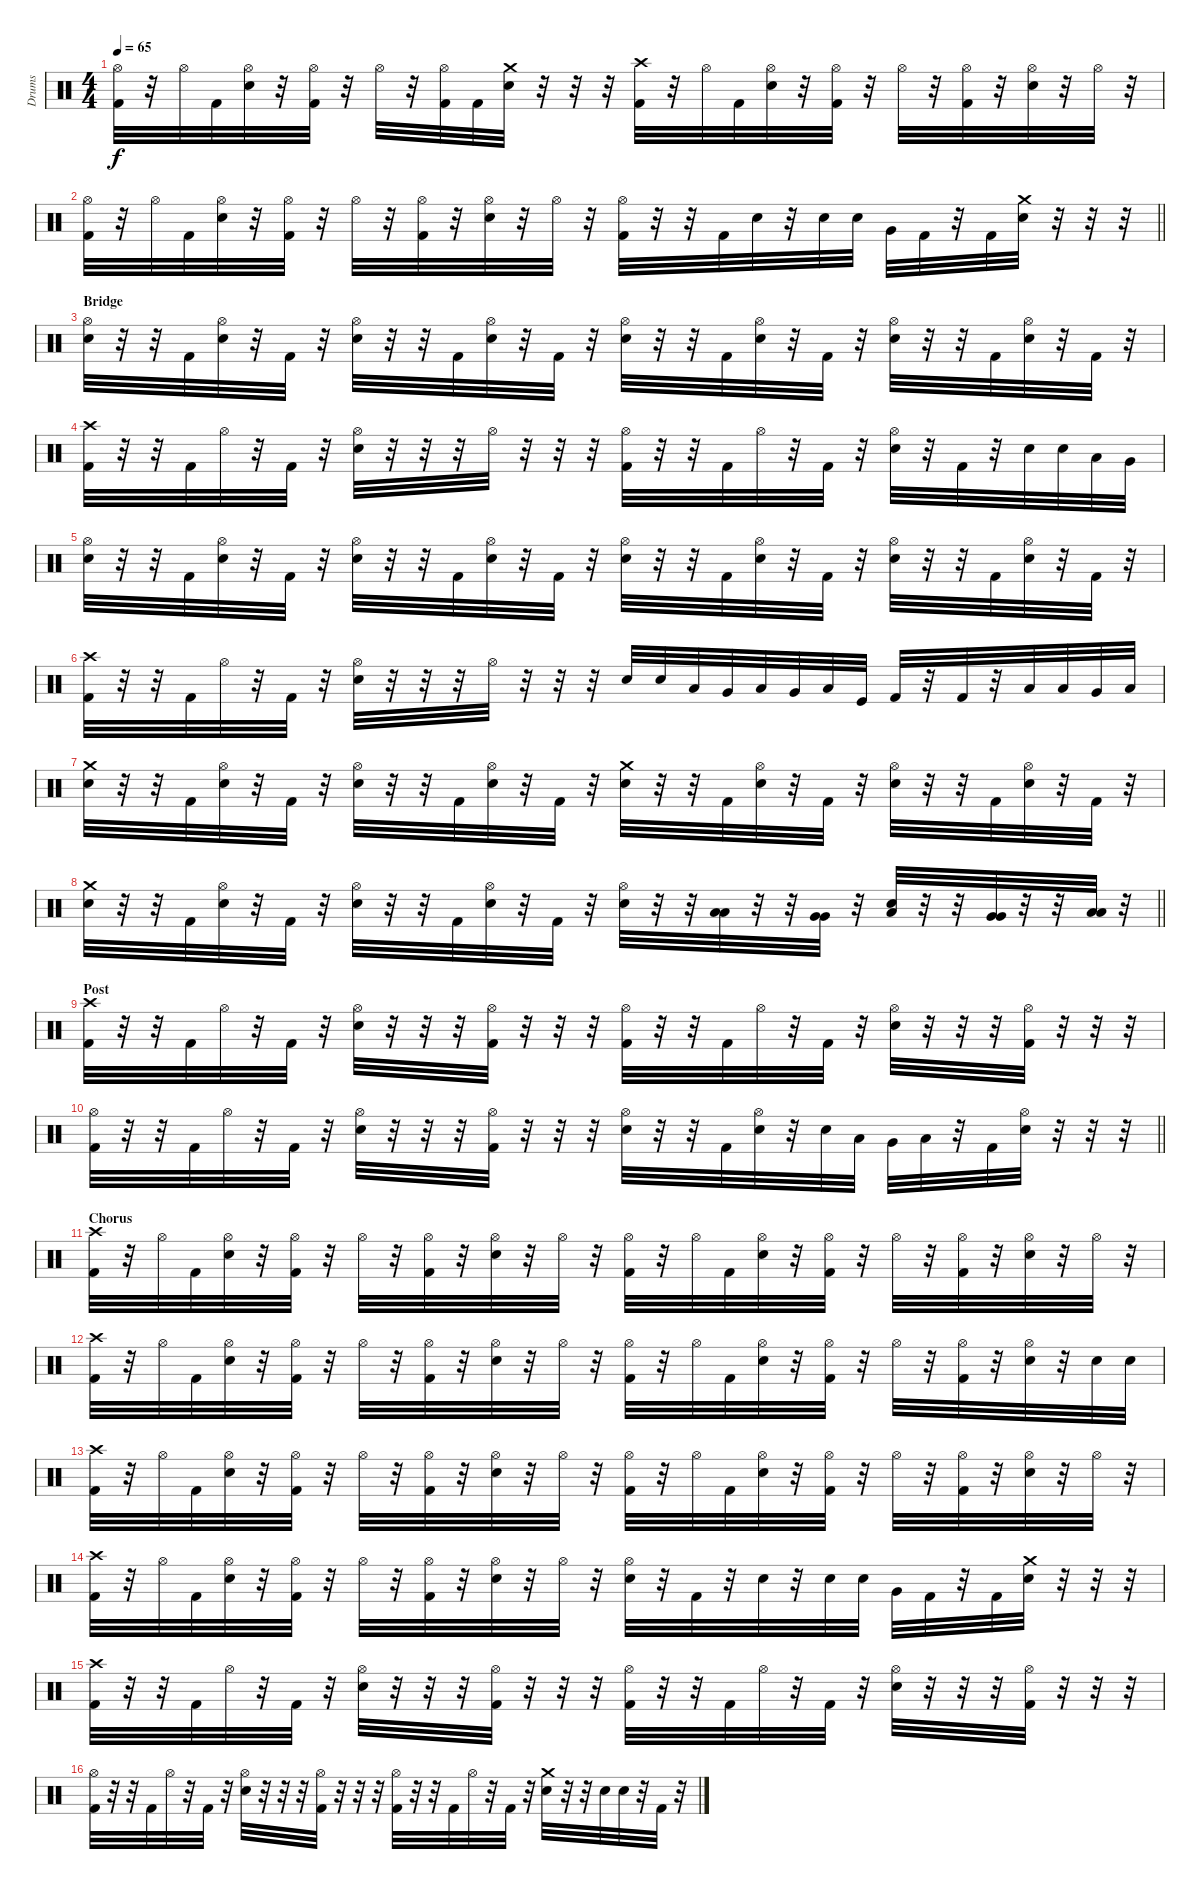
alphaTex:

\track ("Drums" "Drums") {instrument percussion}
\staff {score}
\articulation defaults
\ts (4 4)
\tempo 65
\clef neutral
\ks c
("Hi-Hat (open)" "Kick (hit) 2").32{dy f} r.32 "Hi-Hat (open)".32 "Kick (hit) 2".32 ("Hi-Hat (open)" "Snare (hit) 2").32 r.32 ("Hi-Hat (open)" "Kick (hit) 2").32 r.32 "Hi-Hat (open)".32 r.32 ("Hi-Hat (open)" "Kick (hit) 2").32 "Kick (hit) 2".32 ("Crash medium (hit)" "Snare (hit) 2").32 r.32 r.32 r.32 ("Crash high (hit)" "Kick (hit) 2").32 r.32 "Hi-Hat (open)".32 "Kick (hit) 2".32 ("Hi-Hat (open)" "Snare (hit) 2").32 r.32 ("Hi-Hat (open)" "Kick (hit) 2").32 r.32 "Hi-Hat (open)".32 r.32 ("Hi-Hat (open)" "Kick (hit) 2").32 r.32 ("Hi-Hat (open)" "Snare (hit) 2").32 r.32 "Hi-Hat (open)".32 r.32 |
\barLineRight lightlight
("Hi-Hat (open)" "Kick (hit) 2").32 r.32 "Hi-Hat (open)".32 "Kick (hit) 2".32 ("Hi-Hat (open)" "Snare (hit) 2").32 r.32 ("Hi-Hat (open)" "Kick (hit) 2").32 r.32 "Hi-Hat (open)".32 r.32 ("Hi-Hat (open)" "Kick (hit) 2").32 r.32 ("Hi-Hat (open)" "Snare (hit) 2").32 r.32 "Hi-Hat (open)".32 r.32 ("Hi-Hat (open)" "Kick (hit) 2").32 r.32 r.32 "Kick (hit) 2".32 "Snare (hit) 2".32 r.32 "Snare (hit) 2".32 "Snare (hit) 2".32 "Very Low Tom (hit)".32 "Kick (hit) 2".32 r.32 "Kick (hit) 2".32 ("Snare (hit) 2" "Crash medium (hit)").32 r.32 r.32 r.32 |
\section ("" "Bridge")
("Hi-Hat (open)" "Snare (hit) 2").32 r.32 r.32 "Kick (hit) 2".32 ("Hi-Hat (open)" "Snare (hit) 2").32 r.32 "Kick (hit) 2".32 r.32 ("Hi-Hat (open)" "Snare (hit) 2").32 r.32 r.32 "Kick (hit) 2".32 ("Hi-Hat (open)" "Snare (hit) 2").32 r.32 "Kick (hit) 2".32 r.32 ("Hi-Hat (open)" "Snare (hit) 2").32 r.32 r.32 "Kick (hit) 2".32 ("Hi-Hat (open)" "Snare (hit) 2").32 r.32 "Kick (hit) 2".32 r.32 ("Hi-Hat (open)" "Snare (hit) 2").32 r.32 r.32 "Kick (hit) 2".32 ("Hi-Hat (open)" "Snare (hit) 2").32 r.32 "Kick (hit) 2".32 r.32 |
("Crash high (hit)" "Kick (hit) 2").32 r.32 r.32 "Kick (hit) 2".32 "Hi-Hat (open)".32 r.32 "Kick (hit) 2".32 r.32 ("Hi-Hat (open)" "Snare (hit) 2").32 r.32 r.32 r.32 "Hi-Hat (open)".32 r.32 r.32 r.32 ("Hi-Hat (open)" "Kick (hit) 2").32 r.32 r.32 "Kick (hit) 2".32 "Hi-Hat (open)".32 r.32 "Kick (hit) 2".32 r.32 ("Hi-Hat (open)" "Snare (hit) 2").32 r.32 "Kick (hit) 2".32 r.32 "Snare (hit) 2".32 "Snare (hit) 2".32 "Low Tom (hit)".32 "Very Low Tom (hit)".32 |
("Hi-Hat (open)" "Snare (hit) 2").32 r.32 r.32 "Kick (hit) 2".32 ("Hi-Hat (open)" "Snare (hit) 2").32 r.32 "Kick (hit) 2".32 r.32 ("Hi-Hat (open)" "Snare (hit) 2").32 r.32 r.32 "Kick (hit) 2".32 ("Hi-Hat (open)" "Snare (hit) 2").32 r.32 "Kick (hit) 2".32 r.32 ("Hi-Hat (open)" "Snare (hit) 2").32 r.32 r.32 "Kick (hit) 2".32 ("Hi-Hat (open)" "Snare (hit) 2").32 r.32 "Kick (hit) 2".32 r.32 ("Hi-Hat (open)" "Snare (hit) 2").32 r.32 r.32 "Kick (hit) 2".32 ("Hi-Hat (open)" "Snare (hit) 2").32 r.32 "Kick (hit) 2".32 r.32 |
("Crash high (hit)" "Kick (hit) 2").32 r.32 r.32 "Kick (hit) 2".32 "Hi-Hat (open)".32 r.32 "Kick (hit) 2".32 r.32 ("Hi-Hat (open)" "Snare (hit) 2").32 r.32 r.32 r.32 "Hi-Hat (open)".32 r.32 r.32 r.32 "Snare (hit) 2".32 "Snare (hit) 2".32 "Low Tom (hit)".32 "Very Low Tom (hit)".32 "Low Tom (hit)".32 "Very Low Tom (hit)".32 "Low Floor Tom (hit)".32 "Kick (hit)".32 "Kick (hit) 2".32 r.32 "Kick (hit) 2".32 r.32 "Low Tom (hit)".32 "Low Tom (hit)".32 "Very Low Tom (hit)".32 "Low Floor Tom (hit)".32 |
("Crash medium (hit)" "Snare (hit) 2").32 r.32 r.32 "Kick (hit) 2".32 ("Hi-Hat (open)" "Snare (hit) 2").32 r.32 "Kick (hit) 2".32 r.32 ("Hi-Hat (open)" "Snare (hit) 2").32 r.32 r.32 "Kick (hit) 2".32 ("Hi-Hat (open)" "Snare (hit) 2").32 r.32 "Kick (hit) 2".32 r.32 ("Crash medium (hit)" "Snare (hit) 2").32 r.32 r.32 "Kick (hit) 2".32 ("Hi-Hat (open)" "Snare (hit) 2").32 r.32 "Kick (hit) 2".32 r.32 ("Hi-Hat (open)" "Snare (hit) 2").32 r.32 r.32 "Kick (hit) 2".32 ("Hi-Hat (open)" "Snare (hit) 2").32 r.32 "Kick (hit) 2".32 r.32 |
\barLineRight lightlight
("Crash medium (hit)" "Snare (hit) 2").32 r.32 r.32 "Kick (hit) 2".32 ("Hi-Hat (open)" "Snare (hit) 2").32 r.32 "Kick (hit) 2".32 r.32 ("Hi-Hat (open)" "Snare (hit) 2").32 r.32 r.32 "Kick (hit) 2".32 ("Hi-Hat (open)" "Snare (hit) 2").32 r.32 "Kick (hit) 2".32 r.32 ("Hi-Hat (open)" "Snare (hit) 2").32 r.32 r.32 ("Low Tom (hit)" "Low Tom (hit)").32 r.32 r.32 ("Very Low Tom (hit)" "Very Low Tom (hit)").32 r.32 ("Snare (hit) 2" "Low Tom (hit)").32 r.32 r.32 ("Very Low Tom (hit)" "Very Low Tom (hit)").32 r.32 r.32 ("Low Floor Tom (hit)" "Low Floor Tom (hit)").32 r.32 |
\section ("" "Post")
("Crash high (hit)" "Kick (hit) 2").32 r.32 r.32 "Kick (hit) 2".32 "Hi-Hat (open)".32 r.32 "Kick (hit) 2".32 r.32 ("Hi-Hat (open)" "Snare (hit) 2").32 r.32 r.32 r.32 ("Hi-Hat (open)" "Kick (hit) 2").32 r.32 r.32 r.32 ("Hi-Hat (open)" "Kick (hit) 2").32 r.32 r.32 "Kick (hit) 2".32 "Hi-Hat (open)".32 r.32 "Kick (hit) 2".32 r.32 ("Hi-Hat (open)" "Snare (hit) 2").32 r.32 r.32 r.32 ("Hi-Hat (open)" "Kick (hit) 2").32 r.32 r.32 r.32 |
\barLineRight lightlight
("Hi-Hat (open)" "Kick (hit) 2").32 r.32 r.32 "Kick (hit) 2".32 "Hi-Hat (open)".32 r.32 "Kick (hit) 2".32 r.32 ("Hi-Hat (open)" "Snare (hit) 2").32 r.32 r.32 r.32 ("Hi-Hat (open)" "Kick (hit) 2").32 r.32 r.32 r.32 ("Hi-Hat (open)" "Snare (hit) 2").32 r.32 r.32 "Kick (hit) 2".32 ("Hi-Hat (open)" "Snare (hit) 2").32 r.32 "Snare (hit) 2".32 "Low Tom (hit)".32 "Very Low Tom (hit)".32 "Low Floor Tom (hit)".32 r.32 "Kick (hit) 2".32 ("Hi-Hat (open)" "Snare (hit) 2").32 r.32 r.32 r.32 |
\section ("" "Chorus")
("Crash high (hit)" "Kick (hit) 2").32 r.32 "Hi-Hat (open)".32 "Kick (hit) 2".32 ("Hi-Hat (open)" "Snare (hit) 2").32 r.32 ("Hi-Hat (open)" "Kick (hit) 2").32 r.32 "Hi-Hat (open)".32 r.32 ("Hi-Hat (open)" "Kick (hit) 2").32 r.32 ("Hi-Hat (open)" "Snare (hit) 2").32 r.32 "Hi-Hat (open)".32 r.32 ("Hi-Hat (open)" "Kick (hit) 2").32 r.32 "Hi-Hat (open)".32 "Kick (hit) 2".32 ("Hi-Hat (open)" "Snare (hit) 2").32 r.32 ("Hi-Hat (open)" "Kick (hit) 2").32 r.32 "Hi-Hat (open)".32 r.32 ("Hi-Hat (open)" "Kick (hit) 2").32 r.32 ("Hi-Hat (open)" "Snare (hit) 2").32 r.32 "Hi-Hat (open)".32 r.32 |
("Crash high (hit)" "Kick (hit) 2").32 r.32 "Hi-Hat (open)".32 "Kick (hit) 2".32 ("Hi-Hat (open)" "Snare (hit) 2").32 r.32 ("Hi-Hat (open)" "Kick (hit) 2").32 r.32 "Hi-Hat (open)".32 r.32 ("Hi-Hat (open)" "Kick (hit) 2").32 r.32 ("Hi-Hat (open)" "Snare (hit) 2").32 r.32 "Hi-Hat (open)".32 r.32 ("Hi-Hat (open)" "Kick (hit) 2").32 r.32 "Hi-Hat (open)".32 "Kick (hit) 2".32 ("Hi-Hat (open)" "Snare (hit) 2").32 r.32 ("Hi-Hat (open)" "Kick (hit) 2").32 r.32 "Hi-Hat (open)".32 r.32 ("Hi-Hat (open)" "Kick (hit) 2").32 r.32 ("Hi-Hat (open)" "Snare (hit) 2").32 r.32 "Snare (hit) 2".32 "Snare (hit) 2".32 |
("Crash high (hit)" "Kick (hit) 2").32 r.32 "Hi-Hat (open)".32 "Kick (hit) 2".32 ("Hi-Hat (open)" "Snare (hit) 2").32 r.32 ("Hi-Hat (open)" "Kick (hit) 2").32 r.32 "Hi-Hat (open)".32 r.32 ("Hi-Hat (open)" "Kick (hit) 2").32 r.32 ("Hi-Hat (open)" "Snare (hit) 2").32 r.32 "Hi-Hat (open)".32 r.32 ("Hi-Hat (open)" "Kick (hit) 2").32 r.32 "Hi-Hat (open)".32 "Kick (hit) 2".32 ("Hi-Hat (open)" "Snare (hit) 2").32 r.32 ("Hi-Hat (open)" "Kick (hit) 2").32 r.32 "Hi-Hat (open)".32 r.32 ("Hi-Hat (open)" "Kick (hit) 2").32 r.32 ("Hi-Hat (open)" "Snare (hit) 2").32 r.32 "Hi-Hat (open)".32 r.32 |
("Crash high (hit)" "Kick (hit) 2").32 r.32 "Hi-Hat (open)".32 "Kick (hit) 2".32 ("Hi-Hat (open)" "Snare (hit) 2").32 r.32 ("Hi-Hat (open)" "Kick (hit) 2").32 r.32 "Hi-Hat (open)".32 r.32 ("Hi-Hat (open)" "Kick (hit) 2").32 r.32 ("Hi-Hat (open)" "Snare (hit) 2").32 r.32 "Hi-Hat (open)".32 r.32 ("Hi-Hat (open)" "Snare (hit) 2").32 r.32 "Kick (hit) 2".32 r.32 "Snare (hit) 2".32 r.32 "Snare (hit) 2".32 "Snare (hit) 2".32 "Very Low Tom (hit)".32 "Kick (hit) 2".32 r.32 "Kick (hit) 2".32 ("Snare (hit) 2" "Crash medium (hit)").32 r.32 r.32 r.32 |
("Crash high (hit)" "Kick (hit) 2").32 r.32 r.32 "Kick (hit) 2".32 "Hi-Hat (open)".32 r.32 "Kick (hit) 2".32 r.32 ("Hi-Hat (open)" "Snare (hit) 2").32 r.32 r.32 r.32 ("Hi-Hat (open)" "Kick (hit) 2").32 r.32 r.32 r.32 ("Hi-Hat (open)" "Kick (hit) 2").32 r.32 r.32 "Kick (hit) 2".32 "Hi-Hat (open)".32 r.32 "Kick (hit) 2".32 r.32 ("Hi-Hat (open)" "Snare (hit) 2").32 r.32 r.32 r.32 ("Hi-Hat (open)" "Kick (hit) 2").32 r.32 r.32 r.32 |
("Hi-Hat (open)" "Kick (hit) 2").32 r.32 r.32 "Kick (hit) 2".32 "Hi-Hat (open)".32 r.32 "Kick (hit) 2".32 r.32 ("Hi-Hat (open)" "Snare (hit) 2").32 r.32 r.32 r.32 ("Hi-Hat (open)" "Kick (hit) 2").32 r.32 r.32 r.32 ("Hi-Hat (open)" "Kick (hit) 2").32 r.32 r.32 "Kick (hit) 2".32 "Hi-Hat (open)".32 r.32 "Kick (hit) 2".32 r.32 ("Crash medium (hit)" "Snare (hit) 2").32 r.32 r.32 "Snare (hit) 2".32 "Snare (hit) 2".32 r.32 "Kick (hit) 2".32 r.32
